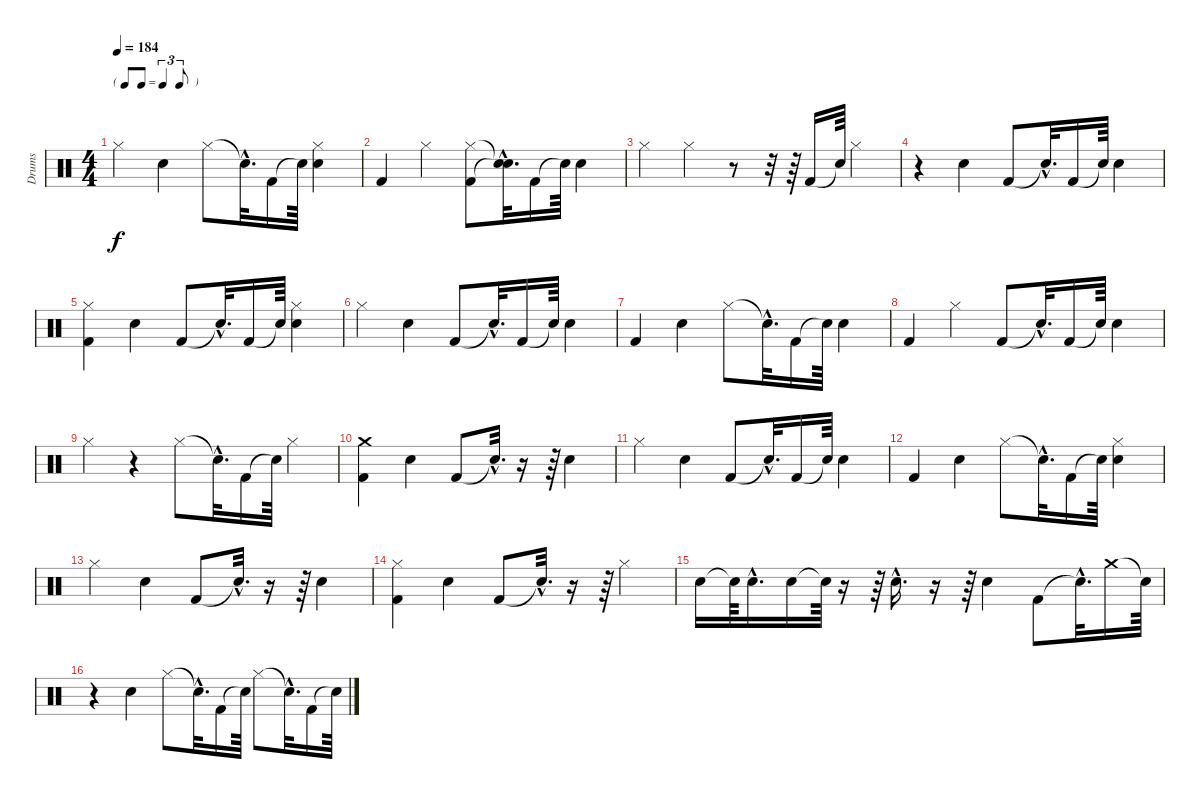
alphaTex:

\track ("Drums" "Drums") {instrument percussion}
\staff {score}
\articulation defaults
\ts (4 4)
\tf triplet8th
\tempo 184
\clef neutral
\ks c "Hi-Hat (closed)".4{dy f} "Snare (hit) 2".4 "Hi-Hat (closed)".8 "Snare (hit)"{hac t}.32{d} "Kick (hit) 2".16 "Snare (hit)"{t}.64
("Hi-Hat (closed)" "Snare (hit) 2").4 |
"Kick (hit) 2".4 "Hi-Hat (closed)".4 ("Hi-Hat (closed)" "Kick (hit) 2").8 ("Snare (hit)"{hac t} "Snare (hit)"{hac t}).32{d} "Kick (hit) 2".16 "Snare (hit)"{t}.64 "Snare (hit) 2".4 |
"Hi-Hat (closed)".4 "Hi-Hat (closed)".4 r.8 r.32 r.64 "Kick (hit) 2".16 "Snare (hit)"{t}.64 "Hi-Hat (closed)".4 |
r.4 "Snare (hit) 2".4 "Kick (hit) 2".8 "Snare (hit)"{hac t}.32{d} "Kick (hit) 2".16 "Snare (hit)"{t}.64 "Snare (hit) 2".4 |
("Hi-Hat (closed)" "Kick (hit) 2").4 "Snare (hit) 2".4 "Kick (hit) 2".8 "Snare (hit)"{hac t}.32{d} "Kick (hit) 2".16 "Snare (hit)"{t}.64 ("Hi-Hat (closed)" "Snare (hit) 2").4 |
"Hi-Hat (closed)".4 "Snare (hit) 2".4 "Kick (hit) 2".8 "Snare (hit)"{hac t}.32{d} "Kick (hit) 2".16 "Snare (hit)"{t}.64 "Snare (hit) 2".4 |
"Kick (hit) 2".4 "Snare (hit) 2".4 "Hi-Hat (closed)".8 "Snare (hit)"{hac t}.32{d} "Kick (hit) 2".16 "Snare (hit)"{t}.64 "Snare (hit) 2".4 |
"Kick (hit) 2".4 "Hi-Hat (closed)".4 "Kick (hit) 2".8 "Snare (hit)"{hac t}.32{d} "Kick (hit) 2".16 "Snare (hit)"{t}.64 "Snare (hit) 2".4 |
"Hi-Hat (closed)".4 r.4 "Hi-Hat (closed)".8 "Snare (hit)"{hac t}.32{d} "Kick (hit) 2".16 "Snare (hit)"{t}.64 "Hi-Hat (closed)".4 |
("Crash medium (hit)" "Kick (hit) 2").4 "Snare (hit) 2".4 "Kick (hit) 2".8 "Snare (hit)"{hac t}.32{d} r.16 r.64 "Snare (hit) 2".4 |
"Hi-Hat (closed)".4 "Snare (hit) 2".4 "Kick (hit) 2".8 "Snare (hit)"{hac t}.32{d} "Kick (hit) 2".16 "Snare (hit)"{t}.64 "Snare (hit) 2".4 |
"Kick (hit) 2".4 "Snare (hit) 2".4 "Hi-Hat (closed)".8 "Snare (hit)"{hac t}.32{d} "Kick (hit) 2".16 "Snare (hit)"{t}.64 ("Hi-Hat (closed)" "Snare (hit) 2").4 |
"Hi-Hat (closed)".4 "Snare (hit) 2".4 "Kick (hit) 2".8 "Snare (hit)"{hac t}.32{d} r.16 r.64 "Snare (hit) 2".4 |
("Hi-Hat (closed)" "Kick (hit) 2").4 "Snare (hit) 2".4 "Kick (hit) 2".8 "Snare (hit)"{hac t}.32{d} r.16 r.64 "Hi-Hat (closed)".4 |
"Snare (hit) 2".16 "Snare (hit)"{t}.64 "Snare (hit) 2"{hac}.16{d} "Snare (hit) 2".16 "Snare (hit)"{t}.64 r.16 r.64 "Snare (hit) 2"{hac}.16{d} r.16 r.64 "Snare (hit) 2".4 "Kick (hit) 2".8 "Snare (hit)"{hac t}.32{d} "Crash medium (hit)".16 "Snare (hit)"{t}.64 |
r.4 "Snare (hit) 2".4 "Hi-Hat (closed)".8 "Snare (hit)"{hac t}.32{d} "Kick (hit) 2".16 "Snare (hit)"{t}.64 "Hi-Hat (closed)".8 "Snare (hit)"{hac t}.32{d} "Kick (hit) 2".16 "Snare (hit)"{t}.64
